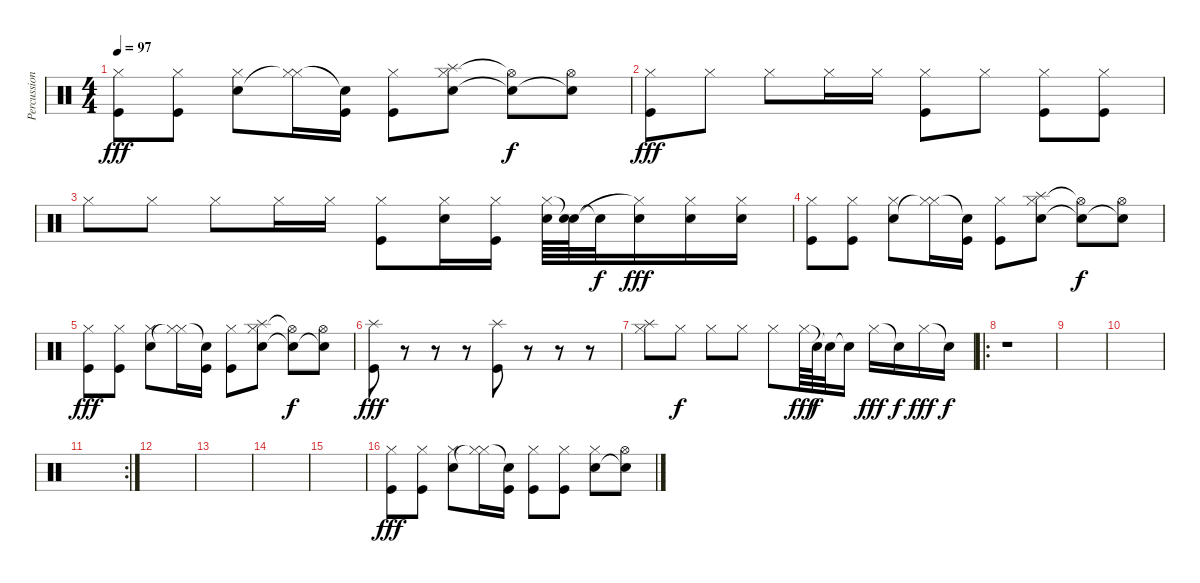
\track ("Percussions" "Percussion") {instrument percussion}
\staff {score}
\articulation defaults
\ts (4 4)
\tempo 97
\clef neutral
\ks c
("Kick (hit)" "Hi-Hat (closed)").8{dy fff} ("Kick (hit)" "Hi-Hat (closed)").8 ("Snare (hit) 2" "Hi-Hat (closed)").8 ("Hi-Hat (closed)"{t} "Hi-Hat (closed)").16 ("Kick (hit)" "Snare (hit)"{t}).16 ("Kick (hit)" "Hi-Hat (closed)").8 ("Snare (hit) 2" "Hi-Hat (closed)" "Splash (hit)").8 ("Snare (hit) 2"{t} "Hi-Hat (open)"{t}).8{dy f} ("Snare (hit)"{t} "Hi-Hat (open)").8 |
("Kick (hit)" "Hi-Hat (closed)").8{dy fff} "Hi-Hat (closed)".8 "Hi-Hat (closed)".8 "Hi-Hat (closed)".16 "Hi-Hat (closed)".16 ("Kick (hit)" "Hi-Hat (closed)").8 "Hi-Hat (closed)".8 ("Kick (hit)" "Hi-Hat (closed)").8 ("Kick (hit)" "Hi-Hat (closed)").8 |
"Hi-Hat (closed)".8 "Hi-Hat (closed)".8 "Hi-Hat (closed)".8 "Hi-Hat (closed)".16 "Hi-Hat (closed)".16 ("Kick (hit)" "Hi-Hat (closed)").8 ("Snare (hit) 2" "Hi-Hat (closed)").16 ("Kick (hit)" "Hi-Hat (closed)").16 ("Snare (hit) 2" "Hi-Hat (closed)").64 ("Snare (hit) 2" "Snare (hit)"{t}).64 "Snare (hit)"{t}.32{dy f} ("Snare (hit) 2" "Hi-Hat (closed)"{t}).16{dy fff} ("Snare (hit) 2" "Hi-Hat (closed)").16 ("Snare (hit) 2" "Hi-Hat (closed)").16 |
("Kick (hit)" "Hi-Hat (closed)").8 ("Kick (hit)" "Hi-Hat (closed)").8 ("Snare (hit) 2" "Hi-Hat (closed)").8 ("Hi-Hat (closed)"{t} "Hi-Hat (closed)").16 ("Kick (hit)" "Snare (hit)"{t}).16 ("Kick (hit)" "Hi-Hat (closed)").8 ("Snare (hit) 2" "Hi-Hat (closed)" "Splash (hit)").8 ("Snare (hit) 2"{t} "Hi-Hat (open)"{t}).8{dy f} ("Snare (hit)"{t} "Hi-Hat (open)").8 |
("Kick (hit)" "Hi-Hat (closed)").8{dy fff} ("Kick (hit)" "Hi-Hat (closed)").8 ("Snare (hit) 2" "Hi-Hat (closed)").8 ("Hi-Hat (closed)"{t} "Hi-Hat (closed)").16 ("Kick (hit)" "Snare (hit)"{t}).16 ("Kick (hit)" "Hi-Hat (closed)").8 ("Snare (hit) 2" "Hi-Hat (closed)" "Splash (hit)").8 ("Snare (hit) 2"{t} "Hi-Hat (open)"{t}).8{dy f} ("Snare (hit)"{t} "Hi-Hat (open)").8 |
("Kick (hit)" "Splash (hit)").8{dy fff} r.8 r.8 r.8 ("Kick (hit)" "Splash (hit)").8 r.8 r.8 r.8 |
("Splash (hit)" "Hi-Hat (closed)").8 "Hi-Hat (closed)".8{dy f} "Hi-Hat (closed)".8 "Hi-Hat (closed)".8 "Hi-Hat (closed)".8 "Hi-Hat (closed)".64{dy fff} "Snare (hit)"{t}.64{dy f} "Snare (hit)"{t}.32 "Snare (hit)"{t}.16 "Hi-Hat (closed)".16{dy fff} "Snare (hit)"{t}.16{dy f} "Hi-Hat (closed)".16{dy fff} "Snare (hit)"{t}.16{dy f} |
\ro
r.1 |
|
|
\rc 2
|
|
|
|
|
("Kick (hit)" "Hi-Hat (closed)").8{dy fff} ("Kick (hit)" "Hi-Hat (closed)").8 ("Snare (hit) 2" "Hi-Hat (closed)").8 ("Hi-Hat (closed)"{t} "Hi-Hat (closed)").16 ("Kick (hit)" "Snare (hit)"{t}).16 ("Kick (hit)" "Hi-Hat (closed)").8 ("Kick (hit)" "Hi-Hat (closed)").8 ("Snare (hit) 2" "Hi-Hat (closed)").8 ("Snare (hit)"{t} "Hi-Hat (open)").8
